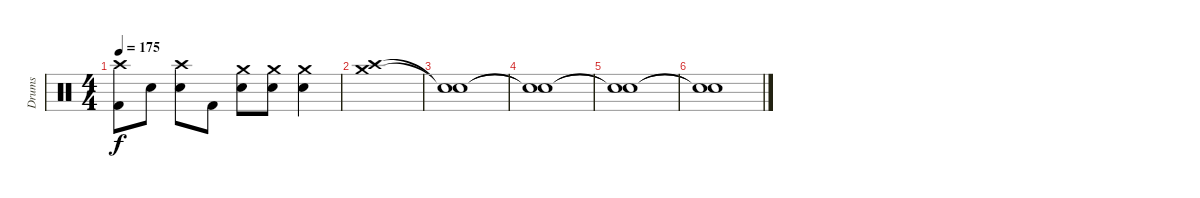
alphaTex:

\track ("Drums" "Drums") {instrument percussion}
\staff {score}
\articulation defaults
\ts (4 4)
\tempo 175
\clef neutral
\ks c
("Crash high (hit)" "Kick (hit) 2").8{dy f} "Electric Snare (hit)".8 ("Crash high (hit)" "Electric Snare (hit)").8 "Kick (hit) 2".8 ("Crash medium (hit)" "Electric Snare (hit)").8 ("Crash medium (hit)" "Electric Snare (hit)").8 ("Crash medium (hit)" "Electric Snare (hit)").4 |
("Crash medium (hit)" "Crash high (hit)").1 |
("Snare (hit)"{t} "Snare (hit)"{t}).1 |
("Snare (hit)"{t} "Snare (hit)"{t}).1 |
("Snare (hit)"{t} "Snare (hit)"{t}).1 |
("Snare (hit)"{t} "Snare (hit)"{t}).1
